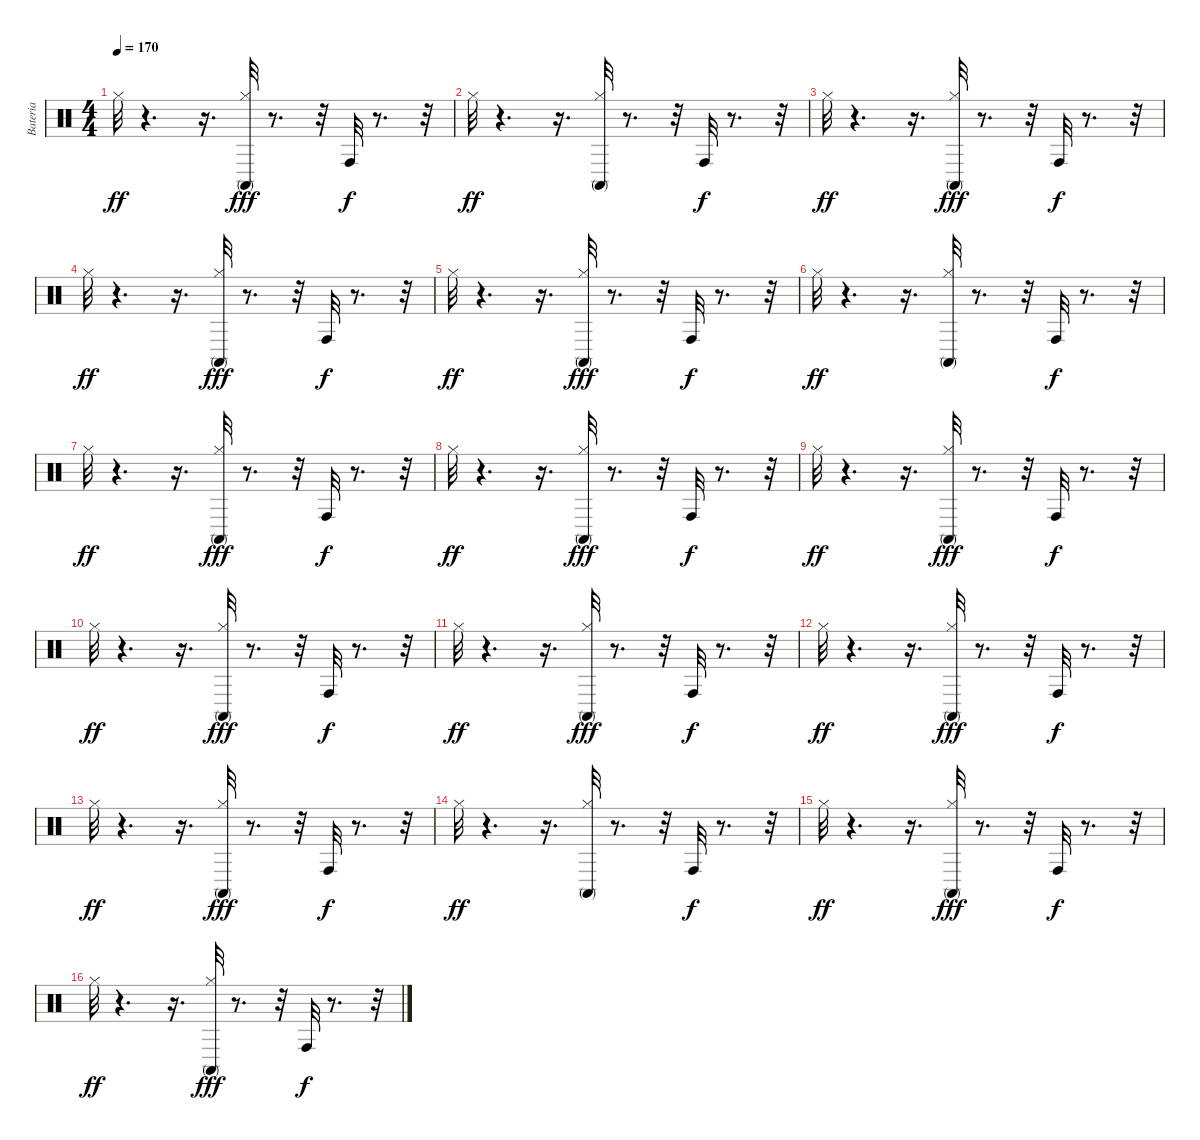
\track ("Bateria" "Bateria") {instrument percussion}
\staff {score}
\articulation defaults
\ts (4 4)
\tempo 170
\clef neutral
\ks c "Hi-Hat (closed)".32{dy ff}
r.4{d} r.16{d} ("Hi-Hat (closed)" "Conga high (mute)").32{dy fff} r.8{d} r.32 "Conga high (hit)".32{dy f} r.8{d} r.32 |
"Hi-Hat (closed)".32{dy ff} r.4{d} r.16{d} ("Conga high (mute)" "Hi-Hat (closed)").32 r.8{d} r.32 "Conga high (hit)".32{dy f} r.8{d} r.32 |
"Hi-Hat (closed)".32{dy ff} r.4{d} r.16{d} ("Hi-Hat (closed)" "Conga high (mute)").32{dy fff} r.8{d} r.32 "Conga high (hit)".32{dy f} r.8{d} r.32 |
"Hi-Hat (closed)".32{dy ff} r.4{d} r.16{d} ("Hi-Hat (closed)" "Conga high (mute)").32{dy fff} r.8{d} r.32 "Conga high (hit)".32{dy f} r.8{d} r.32 |
"Hi-Hat (closed)".32{dy ff} r.4{d} r.16{d} ("Hi-Hat (closed)" "Conga high (mute)").32{dy fff} r.8{d} r.32 "Conga high (hit)".32{dy f} r.8{d} r.32 |
"Hi-Hat (closed)".32{dy ff} r.4{d} r.16{d} ("Conga high (mute)" "Hi-Hat (closed)").32 r.8{d} r.32 "Conga high (hit)".32{dy f} r.8{d} r.32 |
"Hi-Hat (closed)".32{dy ff} r.4{d} r.16{d} ("Hi-Hat (closed)" "Conga high (mute)").32{dy fff} r.8{d} r.32 "Conga high (hit)".32{dy f} r.8{d} r.32 |
"Hi-Hat (closed)".32{dy ff} r.4{d} r.16{d} ("Hi-Hat (closed)" "Conga high (mute)").32{dy fff} r.8{d} r.32 "Conga high (hit)".32{dy f} r.8{d} r.32 |
"Hi-Hat (closed)".32{dy ff} r.4{d} r.16{d} ("Hi-Hat (closed)" "Conga high (mute)").32{dy fff} r.8{d} r.32 "Conga high (hit)".32{dy f} r.8{d} r.32 |
"Hi-Hat (closed)".32{dy ff} r.4{d} r.16{d} ("Hi-Hat (closed)" "Conga high (mute)").32{dy fff} r.8{d} r.32 "Conga high (hit)".32{dy f} r.8{d} r.32 |
"Hi-Hat (closed)".32{dy ff} r.4{d} r.16{d} ("Hi-Hat (closed)" "Conga high (mute)").32{dy fff} r.8{d} r.32 "Conga high (hit)".32{dy f} r.8{d} r.32 |
"Hi-Hat (closed)".32{dy ff} r.4{d} r.16{d} ("Hi-Hat (closed)" "Conga high (mute)").32{dy fff} r.8{d} r.32 "Conga high (hit)".32{dy f} r.8{d} r.32 |
"Hi-Hat (closed)".32{dy ff} r.4{d} r.16{d} ("Hi-Hat (closed)" "Conga high (mute)").32{dy fff} r.8{d} r.32 "Conga high (hit)".32{dy f} r.8{d} r.32 |
"Hi-Hat (closed)".32{dy ff} r.4{d} r.16{d} ("Conga high (mute)" "Hi-Hat (closed)").32 r.8{d} r.32 "Conga high (hit)".32{dy f} r.8{d} r.32 |
"Hi-Hat (closed)".32{dy ff} r.4{d} r.16{d} ("Hi-Hat (closed)" "Conga high (mute)").32{dy fff} r.8{d} r.32 "Conga high (hit)".32{dy f} r.8{d} r.32 |
"Hi-Hat (closed)".32{dy ff} r.4{d} r.16{d} ("Hi-Hat (closed)" "Conga high (mute)").32{dy fff} r.8{d} r.32 "Conga high (hit)".32{dy f} r.8{d} r.32
